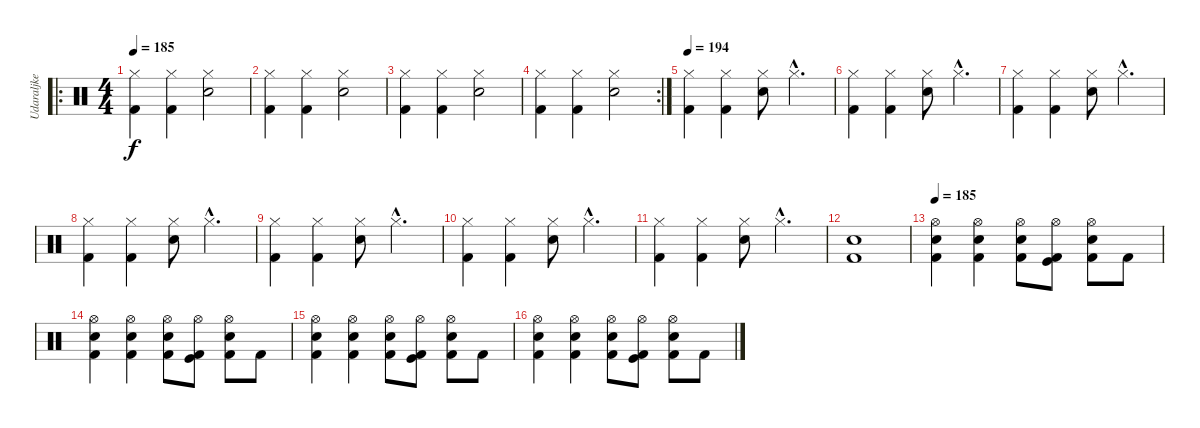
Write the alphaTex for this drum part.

\track ("Udaraljke" "Udaraljke") {instrument percussion}
\staff {score}
\articulation defaults
\ro
\ts (4 4)
\tempo 185
\clef neutral
\ks c
("Kick (hit) 2" "Hi-Hat (closed)").4{dy f} ("Kick (hit) 2" "Hi-Hat (closed)").4 ("Electric Snare (hit)" "Hi-Hat (closed)").2 |
("Kick (hit) 2" "Hi-Hat (closed)").4 ("Kick (hit) 2" "Hi-Hat (closed)").4 ("Electric Snare (hit)" "Hi-Hat (closed)").2 |
("Kick (hit) 2" "Hi-Hat (closed)").4 ("Kick (hit) 2" "Hi-Hat (closed)").4 ("Electric Snare (hit)" "Hi-Hat (closed)").2 |
\rc 2
("Kick (hit) 2" "Hi-Hat (closed)").4 ("Kick (hit) 2" "Hi-Hat (closed)").4 ("Electric Snare (hit)" "Hi-Hat (closed)").2 |
\tempo 194
("Kick (hit) 2" "Hi-Hat (closed)").4 ("Kick (hit) 2" "Hi-Hat (closed)").4 ("Electric Snare (hit)" "Hi-Hat (closed)").8 "Hi-Hat (closed)"{hac}.4{d} |
("Kick (hit) 2" "Hi-Hat (closed)").4 ("Kick (hit) 2" "Hi-Hat (closed)").4 ("Electric Snare (hit)" "Hi-Hat (closed)").8 "Hi-Hat (closed)"{hac}.4{d} |
("Kick (hit) 2" "Hi-Hat (closed)").4 ("Kick (hit) 2" "Hi-Hat (closed)").4 ("Electric Snare (hit)" "Hi-Hat (closed)").8 "Hi-Hat (closed)"{hac}.4{d} |
("Kick (hit) 2" "Hi-Hat (closed)").4 ("Kick (hit) 2" "Hi-Hat (closed)").4 ("Electric Snare (hit)" "Hi-Hat (closed)").8 "Hi-Hat (closed)"{hac}.4{d} |
("Kick (hit) 2" "Hi-Hat (closed)").4 ("Kick (hit) 2" "Hi-Hat (closed)").4 ("Electric Snare (hit)" "Hi-Hat (closed)").8 "Hi-Hat (closed)"{hac}.4{d} |
("Kick (hit) 2" "Hi-Hat (closed)").4 ("Kick (hit) 2" "Hi-Hat (closed)").4 ("Electric Snare (hit)" "Hi-Hat (closed)").8 "Hi-Hat (closed)"{hac}.4{d} |
("Kick (hit) 2" "Hi-Hat (closed)").4 ("Kick (hit) 2" "Hi-Hat (closed)").4 ("Electric Snare (hit)" "Hi-Hat (closed)").8 "Hi-Hat (closed)"{hac}.4{d} |
("Kick (hit) 2" "Electric Snare (hit)").1 |
\tempo 185
("Hi-Hat (open)" "Electric Snare (hit)" "Kick (hit) 2").4 ("Hi-Hat (open)" "Electric Snare (hit)" "Kick (hit) 2").4 ("Hi-Hat (open)" "Electric Snare (hit)" "Kick (hit) 2").8 ("Hi-Hat (open)" "Kick (hit)" "Kick (hit) 2").8 ("Hi-Hat (open)" "Electric Snare (hit)" "Kick (hit) 2").8 "Kick (hit) 2".8 |
("Hi-Hat (open)" "Electric Snare (hit)" "Kick (hit) 2").4 ("Hi-Hat (open)" "Electric Snare (hit)" "Kick (hit) 2").4 ("Hi-Hat (open)" "Electric Snare (hit)" "Kick (hit) 2").8 ("Hi-Hat (open)" "Kick (hit)" "Kick (hit) 2").8 ("Hi-Hat (open)" "Electric Snare (hit)" "Kick (hit) 2").8 "Kick (hit) 2".8 |
("Hi-Hat (open)" "Electric Snare (hit)" "Kick (hit) 2").4 ("Hi-Hat (open)" "Electric Snare (hit)" "Kick (hit) 2").4 ("Hi-Hat (open)" "Electric Snare (hit)" "Kick (hit) 2").8 ("Hi-Hat (open)" "Kick (hit)" "Kick (hit) 2").8 ("Hi-Hat (open)" "Electric Snare (hit)" "Kick (hit) 2").8 "Kick (hit) 2".8 |
("Hi-Hat (open)" "Electric Snare (hit)" "Kick (hit) 2").4 ("Hi-Hat (open)" "Electric Snare (hit)" "Kick (hit) 2").4 ("Hi-Hat (open)" "Electric Snare (hit)" "Kick (hit) 2").8 ("Hi-Hat (open)" "Kick (hit)" "Kick (hit) 2").8 ("Hi-Hat (open)" "Electric Snare (hit)" "Kick (hit) 2").8 "Kick (hit) 2".8
